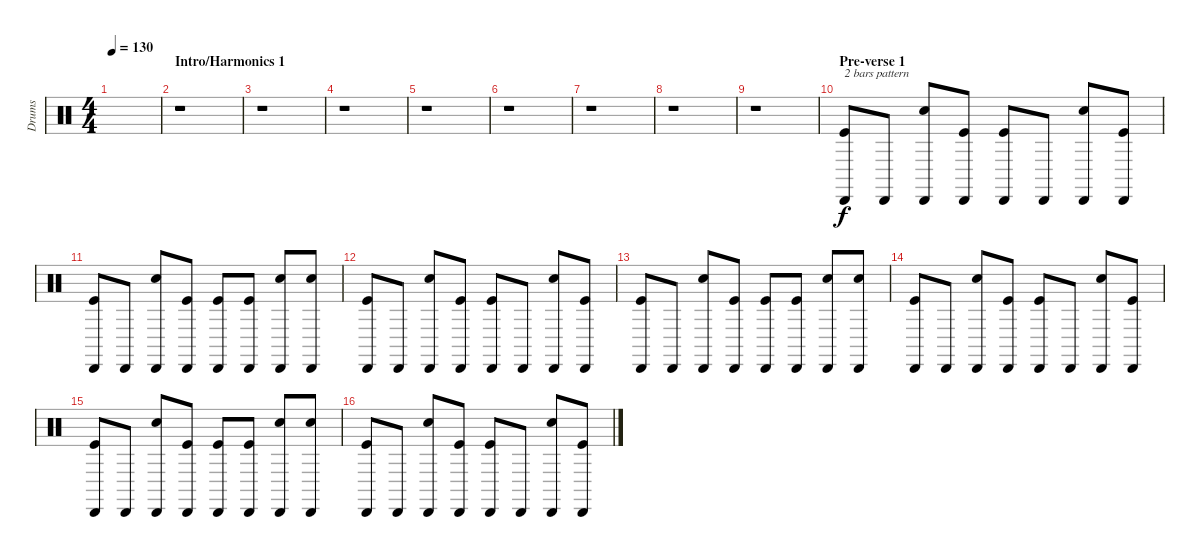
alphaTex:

\track ("Drums" "Drums") {instrument percussion}
\staff {score}
\articulation defaults
\ts (4 4)
\tempo 130
\clef neutral
\ks c
|
\section ("" "Intro/Harmonics 1")
r.1 |
r.1 |
r.1 |
r.1 |
r.1 |
r.1 |
r.1 |
r.1 |
\section ("" "Pre-verse 1")
("Cabasa (hit)" "Kick (hit)").8{txt "2 bars pattern"} "Cabasa (hit)".8 ("Cabasa (hit)" "Electric Snare (hit)").8 ("Cabasa (hit)" "Kick (hit)").8 ("Cabasa (hit)" "Kick (hit)").8 "Cabasa (hit)".8 ("Cabasa (hit)" "Electric Snare (hit)").8 ("Cabasa (hit)" "Kick (hit)").8 |
("Cabasa (hit)" "Kick (hit)").8 "Cabasa (hit)".8 ("Cabasa (hit)" "Electric Snare (hit)").8 ("Cabasa (hit)" "Kick (hit)").8 ("Cabasa (hit)" "Kick (hit)").8 ("Cabasa (hit)" "Kick (hit)").8 ("Cabasa (hit)" "Electric Snare (hit)").8 ("Cabasa (hit)" "Electric Snare (hit)").8 |
("Cabasa (hit)" "Kick (hit)").8 "Cabasa (hit)".8 ("Cabasa (hit)" "Electric Snare (hit)").8 ("Cabasa (hit)" "Kick (hit)").8 ("Cabasa (hit)" "Kick (hit)").8 "Cabasa (hit)".8 ("Cabasa (hit)" "Electric Snare (hit)").8 ("Cabasa (hit)" "Kick (hit)").8 |
("Cabasa (hit)" "Kick (hit)").8 "Cabasa (hit)".8 ("Cabasa (hit)" "Electric Snare (hit)").8 ("Cabasa (hit)" "Kick (hit)").8 ("Cabasa (hit)" "Kick (hit)").8 ("Cabasa (hit)" "Kick (hit)").8 ("Cabasa (hit)" "Electric Snare (hit)").8 ("Cabasa (hit)" "Electric Snare (hit)").8 |
("Cabasa (hit)" "Kick (hit)").8 "Cabasa (hit)".8 ("Cabasa (hit)" "Electric Snare (hit)").8 ("Cabasa (hit)" "Kick (hit)").8 ("Cabasa (hit)" "Kick (hit)").8 "Cabasa (hit)".8 ("Cabasa (hit)" "Electric Snare (hit)").8 ("Cabasa (hit)" "Kick (hit)").8 |
("Cabasa (hit)" "Kick (hit)").8 "Cabasa (hit)".8 ("Cabasa (hit)" "Electric Snare (hit)").8 ("Cabasa (hit)" "Kick (hit)").8 ("Cabasa (hit)" "Kick (hit)").8 ("Cabasa (hit)" "Kick (hit)").8 ("Cabasa (hit)" "Electric Snare (hit)").8 ("Cabasa (hit)" "Electric Snare (hit)").8 |
("Cabasa (hit)" "Kick (hit)").8 "Cabasa (hit)".8 ("Cabasa (hit)" "Electric Snare (hit)").8 ("Cabasa (hit)" "Kick (hit)").8 ("Cabasa (hit)" "Kick (hit)").8 "Cabasa (hit)".8 ("Cabasa (hit)" "Electric Snare (hit)").8 ("Cabasa (hit)" "Kick (hit)").8
